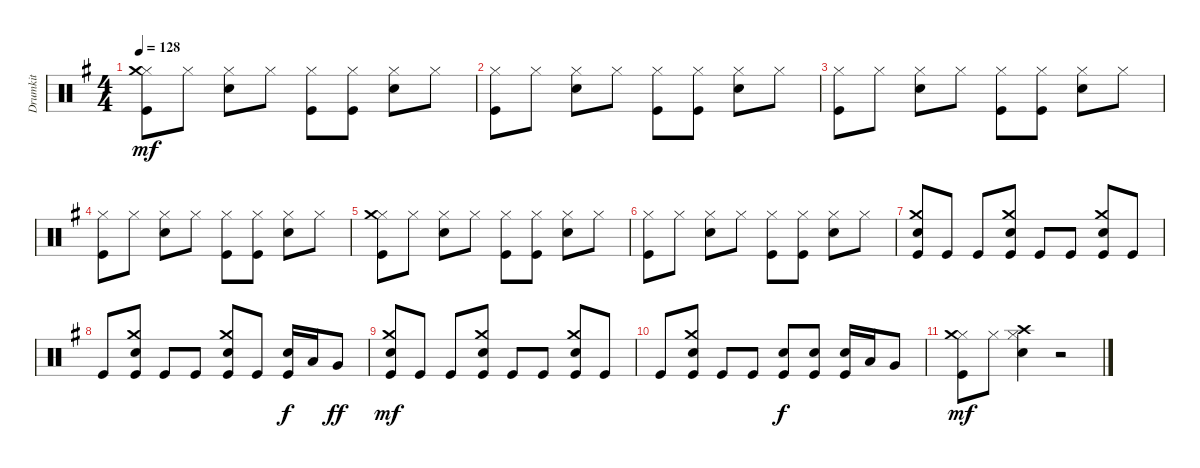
\track ("Drumkit" "Drumkit") {instrument percussion}
\staff {score}
\articulation defaults
\ts (4 4)
\tempo 128
\clef neutral
\ks eminor
("Kick (hit)" "Hi-Hat (closed)" "Crash medium (hit)").8{dy mf} "Hi-Hat (closed)".8 ("Hi-Hat (closed)" "Snare (hit) 2").8 "Hi-Hat (closed)".8 ("Hi-Hat (closed)" "Kick (hit)").8 ("Hi-Hat (closed)" "Kick (hit)").8 ("Hi-Hat (closed)" "Snare (hit) 2").8 "Hi-Hat (closed)".8 |
("Kick (hit)" "Hi-Hat (closed)").8 "Hi-Hat (closed)".8 ("Hi-Hat (closed)" "Snare (hit) 2").8 "Hi-Hat (closed)".8 ("Hi-Hat (closed)" "Kick (hit)").8 ("Hi-Hat (closed)" "Kick (hit)").8 ("Hi-Hat (closed)" "Snare (hit) 2").8 "Hi-Hat (closed)".8 |
("Kick (hit)" "Hi-Hat (closed)").8 "Hi-Hat (closed)".8 ("Hi-Hat (closed)" "Snare (hit) 2").8 "Hi-Hat (closed)".8 ("Hi-Hat (closed)" "Kick (hit)").8 ("Hi-Hat (closed)" "Kick (hit)").8 ("Hi-Hat (closed)" "Snare (hit) 2").8 "Hi-Hat (closed)".8 |
("Kick (hit)" "Hi-Hat (closed)").8 "Hi-Hat (closed)".8 ("Hi-Hat (closed)" "Snare (hit) 2").8 "Hi-Hat (closed)".8 ("Hi-Hat (closed)" "Kick (hit)").8 ("Hi-Hat (closed)" "Kick (hit)").8 ("Hi-Hat (closed)" "Snare (hit) 2").8 "Hi-Hat (closed)".8 |
("Kick (hit)" "Hi-Hat (closed)" "Crash medium (hit)").8 "Hi-Hat (closed)".8 ("Hi-Hat (closed)" "Snare (hit) 2").8 "Hi-Hat (closed)".8 ("Hi-Hat (closed)" "Kick (hit)").8 ("Hi-Hat (closed)" "Kick (hit)").8 ("Hi-Hat (closed)" "Snare (hit) 2").8 "Hi-Hat (closed)".8 |
("Kick (hit)" "Hi-Hat (closed)").8 "Hi-Hat (closed)".8 ("Hi-Hat (closed)" "Snare (hit) 2").8 "Hi-Hat (closed)".8 ("Hi-Hat (closed)" "Kick (hit)").8 ("Hi-Hat (closed)" "Kick (hit)").8 ("Hi-Hat (closed)" "Snare (hit) 2").8 "Hi-Hat (closed)".8 |
("Kick (hit)" "Crash medium (hit)" "Snare (hit) 2").8 "Kick (hit)".8 "Kick (hit)".8 ("Kick (hit)" "Crash medium (hit)" "Snare (hit) 2").8 "Kick (hit)".8 "Kick (hit)".8 ("Kick (hit)" "Crash medium (hit)" "Snare (hit) 2").8 "Kick (hit)".8 |
"Kick (hit)".8 ("Kick (hit)" "Crash medium (hit)" "Snare (hit) 2").8 "Kick (hit)".8 "Kick (hit)".8 ("Kick (hit)" "Crash medium (hit)" "Snare (hit) 2").8 "Kick (hit)".8 ("Snare (hit) 2" "Kick (hit)").16{dy f} "Low Tom (hit)".16 "Very Low Tom (hit)".8{dy ff} |
("Kick (hit)" "Crash medium (hit)" "Snare (hit) 2").8{dy mf} "Kick (hit)".8 "Kick (hit)".8 ("Kick (hit)" "Crash medium (hit)" "Snare (hit) 2").8 "Kick (hit)".8 "Kick (hit)".8 ("Kick (hit)" "Crash medium (hit)" "Snare (hit) 2").8 "Kick (hit)".8 |
"Kick (hit)".8 ("Kick (hit)" "Crash medium (hit)" "Snare (hit) 2").8 "Kick (hit)".8 "Kick (hit)".8 ("Kick (hit)" "Snare (hit) 2").8{dy f} ("Snare (hit) 2" "Kick (hit)").8 ("Snare (hit) 2" "Kick (hit)").16 "Low Tom (hit)".16 "Very Low Tom (hit)".8 |
("Kick (hit)" "Hi-Hat (closed)" "Crash medium (hit)").8{dy mf} "Hi-Hat (closed)".8 ("Hi-Hat (closed)" "Snare (hit) 2" "Crash high (hit)").4 r.2
